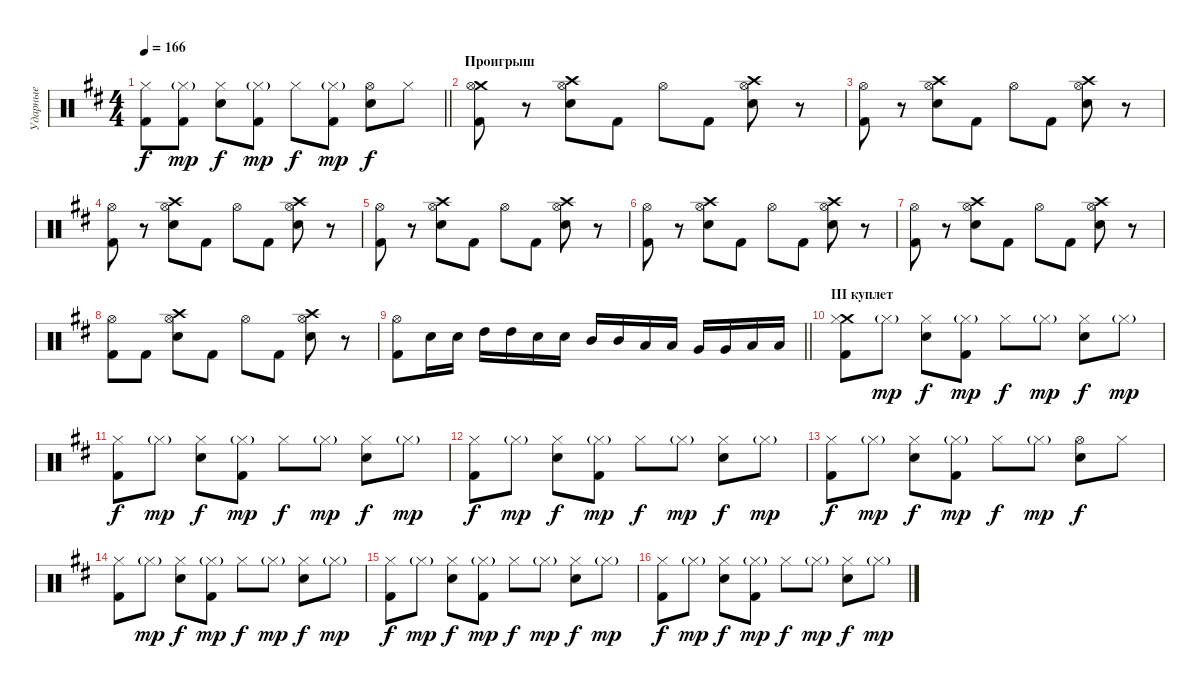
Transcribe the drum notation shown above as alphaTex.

\track ("Ударные" "Ударные") {instrument percussion}
\staff {score}
\articulation defaults
\ts (4 4)
\tempo 166
\clef neutral
\barLineRight lightlight
\ks bminor
("Kick (hit) 2" "Hi-Hat (closed)").8{dy f} ("Kick (hit) 2" "Hi-Hat (closed)"{g}).8{dy mp} ("Electric Snare (hit)" "Hi-Hat (closed)").8{dy f} ("Kick (hit) 2" "Hi-Hat (closed)"{g}).8{dy mp} "Hi-Hat (closed)".8{dy f} ("Kick (hit) 2" "Hi-Hat (closed)"{g}).8{dy mp} ("Electric Snare (hit)" "Hi-Hat (open)").8{dy f} "Hi-Hat (closed)".8 |
\section ("" "Проигрыш")
("Crash medium (hit)" "Kick (hit) 2" "Hi-Hat (open)").8 r.8 ("Crash high (hit)" "Electric Snare (hit)" "Hi-Hat (open)").8 "Kick (hit) 2".8 "Hi-Hat (open)".8 "Kick (hit) 2".8 ("Crash high (hit)" "Electric Snare (hit)" "Hi-Hat (open)").8 r.8 |
("Kick (hit) 2" "Hi-Hat (open)").8 r.8 ("Crash high (hit)" "Electric Snare (hit)" "Hi-Hat (open)").8 "Kick (hit) 2".8 "Hi-Hat (open)".8 "Kick (hit) 2".8 ("Crash high (hit)" "Electric Snare (hit)" "Hi-Hat (open)").8 r.8 |
("Kick (hit) 2" "Hi-Hat (open)").8 r.8 ("Crash high (hit)" "Electric Snare (hit)" "Hi-Hat (open)").8 "Kick (hit) 2".8 "Hi-Hat (open)".8 "Kick (hit) 2".8 ("Crash high (hit)" "Electric Snare (hit)" "Hi-Hat (open)").8 r.8 |
("Kick (hit) 2" "Hi-Hat (open)").8 r.8 ("Crash high (hit)" "Electric Snare (hit)" "Hi-Hat (open)").8 "Kick (hit) 2".8 "Hi-Hat (open)".8 "Kick (hit) 2".8 ("Crash high (hit)" "Electric Snare (hit)" "Hi-Hat (open)").8 r.8 |
("Kick (hit) 2" "Hi-Hat (open)").8 r.8 ("Crash high (hit)" "Electric Snare (hit)" "Hi-Hat (open)").8 "Kick (hit) 2".8 "Hi-Hat (open)".8 "Kick (hit) 2".8 ("Crash high (hit)" "Electric Snare (hit)" "Hi-Hat (open)").8 r.8 |
("Kick (hit) 2" "Hi-Hat (open)").8 r.8 ("Crash high (hit)" "Electric Snare (hit)" "Hi-Hat (open)").8 "Kick (hit) 2".8 "Hi-Hat (open)".8 "Kick (hit) 2".8 ("Crash high (hit)" "Electric Snare (hit)" "Hi-Hat (open)").8 r.8 |
("Kick (hit) 2" "Hi-Hat (open)").8 "Kick (hit) 2".8 ("Crash high (hit)" "Electric Snare (hit)" "Hi-Hat (open)").8 "Kick (hit) 2".8 "Hi-Hat (open)".8 "Kick (hit) 2".8 ("Crash high (hit)" "Electric Snare (hit)" "Hi-Hat (open)").8 r.8 |
\barLineRight lightlight
("Kick (hit) 2" "Hi-Hat (open)").8 "Electric Snare (hit)".16 "Electric Snare (hit)".16 "High Tom (hit)".16 "High Tom (hit)".16 "Electric Snare (hit)".16 "Electric Snare (hit)".16 "Mid Tom (hit)".16 "Mid Tom (hit)".16 "Low Tom (hit)".16 "Low Tom (hit)".16 "Very Low Tom (hit)".16 "Very Low Tom (hit)".16 "Low Floor Tom (hit)".16 "Low Floor Tom (hit)".16 |
\section ("" "III куплет")
("Crash medium (hit)" "Kick (hit) 2" "Hi-Hat (closed)").8 "Hi-Hat (closed)"{g}.8{dy mp} ("Electric Snare (hit)" "Hi-Hat (closed)").8{dy f} ("Kick (hit) 2" "Hi-Hat (closed)"{g}).8{dy mp} "Hi-Hat (closed)".8{dy f} "Hi-Hat (closed)"{g}.8{dy mp} ("Electric Snare (hit)" "Hi-Hat (closed)").8{dy f} "Hi-Hat (closed)"{g}.8{dy mp} |
("Kick (hit) 2" "Hi-Hat (closed)").8{dy f} "Hi-Hat (closed)"{g}.8{dy mp} ("Electric Snare (hit)" "Hi-Hat (closed)").8{dy f} ("Kick (hit) 2" "Hi-Hat (closed)"{g}).8{dy mp} "Hi-Hat (closed)".8{dy f} "Hi-Hat (closed)"{g}.8{dy mp} ("Electric Snare (hit)" "Hi-Hat (closed)").8{dy f} "Hi-Hat (closed)"{g}.8{dy mp} |
("Kick (hit) 2" "Hi-Hat (closed)").8{dy f} "Hi-Hat (closed)"{g}.8{dy mp} ("Electric Snare (hit)" "Hi-Hat (closed)").8{dy f} ("Kick (hit) 2" "Hi-Hat (closed)"{g}).8{dy mp} "Hi-Hat (closed)".8{dy f} "Hi-Hat (closed)"{g}.8{dy mp} ("Electric Snare (hit)" "Hi-Hat (closed)").8{dy f} "Hi-Hat (closed)"{g}.8{dy mp} |
("Kick (hit) 2" "Hi-Hat (closed)").8{dy f} "Hi-Hat (closed)"{g}.8{dy mp} ("Electric Snare (hit)" "Hi-Hat (closed)").8{dy f} ("Kick (hit) 2" "Hi-Hat (closed)"{g}).8{dy mp} "Hi-Hat (closed)".8{dy f} "Hi-Hat (closed)"{g}.8{dy mp} ("Electric Snare (hit)" "Hi-Hat (open)").8{dy f} "Hi-Hat (closed)".8 |
("Kick (hit) 2" "Hi-Hat (closed)").8 "Hi-Hat (closed)"{g}.8{dy mp} ("Electric Snare (hit)" "Hi-Hat (closed)").8{dy f} ("Kick (hit) 2" "Hi-Hat (closed)"{g}).8{dy mp} "Hi-Hat (closed)".8{dy f} "Hi-Hat (closed)"{g}.8{dy mp} ("Electric Snare (hit)" "Hi-Hat (closed)").8{dy f} "Hi-Hat (closed)"{g}.8{dy mp} |
("Kick (hit) 2" "Hi-Hat (closed)").8{dy f} "Hi-Hat (closed)"{g}.8{dy mp} ("Electric Snare (hit)" "Hi-Hat (closed)").8{dy f} ("Kick (hit) 2" "Hi-Hat (closed)"{g}).8{dy mp} "Hi-Hat (closed)".8{dy f} "Hi-Hat (closed)"{g}.8{dy mp} ("Electric Snare (hit)" "Hi-Hat (closed)").8{dy f} "Hi-Hat (closed)"{g}.8{dy mp} |
("Kick (hit) 2" "Hi-Hat (closed)").8{dy f} "Hi-Hat (closed)"{g}.8{dy mp} ("Electric Snare (hit)" "Hi-Hat (closed)").8{dy f} ("Kick (hit) 2" "Hi-Hat (closed)"{g}).8{dy mp} "Hi-Hat (closed)".8{dy f} "Hi-Hat (closed)"{g}.8{dy mp} ("Electric Snare (hit)" "Hi-Hat (closed)").8{dy f} "Hi-Hat (closed)"{g}.8{dy mp}
